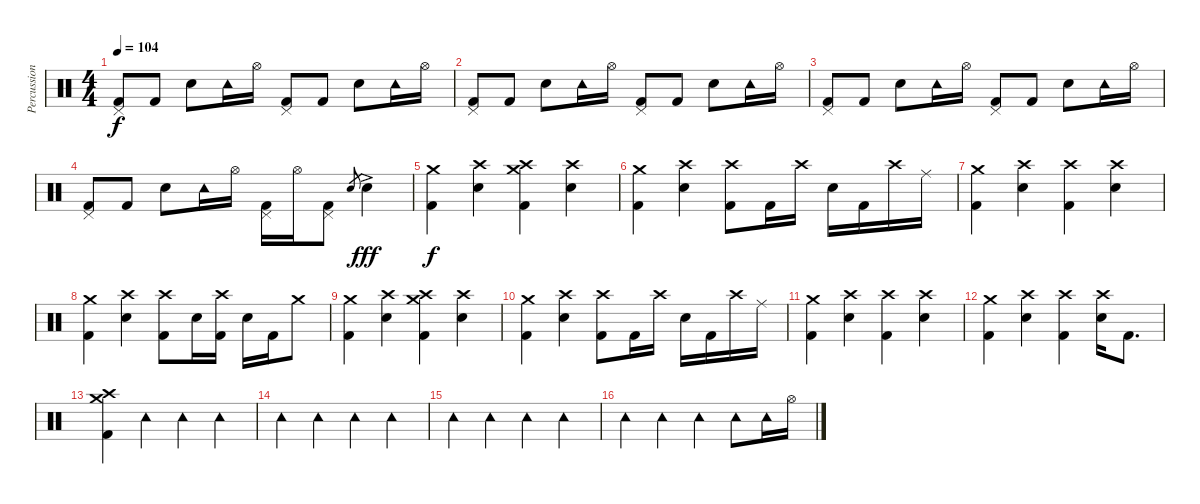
\track ("Percussions" "Percussion") {instrument percussion}
\staff {score}
\articulation defaults
\ts (4 4)
\tempo 104
\clef neutral
\ks c
("Pedal Hi-Hat (hit)" "Kick (hit) 2").8{dy f} "Kick (hit) 2".8 "Snare (hit) 2".8 "Tambourine (hit)".16 "Hi-Hat (open)".16 ("Pedal Hi-Hat (hit)" "Kick (hit) 2").8 "Kick (hit) 2".8 "Snare (hit) 2".8 "Tambourine (hit)".16 "Hi-Hat (open)".16 |
("Pedal Hi-Hat (hit)" "Kick (hit) 2").8 "Kick (hit) 2".8 "Snare (hit) 2".8 "Tambourine (hit)".16 "Hi-Hat (open)".16 ("Pedal Hi-Hat (hit)" "Kick (hit) 2").8 "Kick (hit) 2".8 "Snare (hit) 2".8 "Tambourine (hit)".16 "Hi-Hat (open)".16 |
("Pedal Hi-Hat (hit)" "Kick (hit) 2").8 "Kick (hit) 2".8 "Snare (hit) 2".8 "Tambourine (hit)".16 "Hi-Hat (open)".16 ("Pedal Hi-Hat (hit)" "Kick (hit) 2").8 "Kick (hit) 2".8 "Snare (hit) 2".8 "Tambourine (hit)".16 "Hi-Hat (open)".16 |
("Pedal Hi-Hat (hit)" "Kick (hit) 2").8 "Kick (hit) 2".8 "Snare (hit) 2".8 "Tambourine (hit)".16 "Hi-Hat (open)".16 ("Pedal Hi-Hat (hit)" "Kick (hit) 2").16 "Hi-Hat (open)".16 ("Pedal Hi-Hat (hit)" "Kick (hit) 2").8 "Snare (hit) 2".8{gr} "Snare (hit) 2"{ac}.4{dy fff} |
("Crash medium (hit)" "Kick (hit) 2").4{dy f} ("Crash high (hit)" "Snare (hit) 2").4 ("Crash medium (hit)" "Crash high (hit)" "Kick (hit) 2").4 ("Crash high (hit)" "Snare (hit) 2").4 |
("Crash medium (hit)" "Kick (hit) 2").4 ("Crash high (hit)" "Snare (hit) 2").4 ("Crash high (hit)" "Kick (hit) 2").8 "Kick (hit) 2".16 "Crash high (hit)".16 "Snare (hit) 2".16 "Kick (hit) 2".16 "Crash high (hit)".16 "Ride (middle)".16 |
("Crash medium (hit)" "Kick (hit) 2").4 ("Crash high (hit)" "Snare (hit) 2").4 ("Crash high (hit)" "Kick (hit) 2").4 ("Crash high (hit)" "Snare (hit) 2").4 |
("Crash medium (hit)" "Kick (hit) 2").4 ("Crash high (hit)" "Snare (hit) 2").4 ("Crash high (hit)" "Kick (hit) 2").8 "Snare (hit) 2".16 ("Crash high (hit)" "Kick (hit) 2").16 "Snare (hit) 2".16 "Kick (hit) 2".16 "Crash medium (hit)".8 |
("Crash medium (hit)" "Kick (hit) 2").4 ("Crash high (hit)" "Snare (hit) 2").4 ("Crash medium (hit)" "Crash high (hit)" "Kick (hit) 2").4 ("Crash high (hit)" "Snare (hit) 2").4 |
("Crash medium (hit)" "Kick (hit) 2").4 ("Crash high (hit)" "Snare (hit) 2").4 ("Crash high (hit)" "Kick (hit) 2").8 "Kick (hit) 2".16 "Crash high (hit)".16 "Snare (hit) 2".16 "Kick (hit) 2".16 "Crash high (hit)".16 "Ride (middle)".16 |
("Crash medium (hit)" "Kick (hit) 2").4 ("Crash high (hit)" "Snare (hit) 2").4 ("Crash high (hit)" "Kick (hit) 2").4 ("Crash high (hit)" "Snare (hit) 2").4 |
("Crash medium (hit)" "Kick (hit) 2").4 ("Crash high (hit)" "Snare (hit) 2").4 ("Crash high (hit)" "Kick (hit) 2").4 ("Crash high (hit)" "Snare (hit) 2").16 "Kick (hit) 2".8{d} |
("Crash medium (hit)" "Crash high (hit)" "Kick (hit) 2").4 "Tambourine (hit)".4 "Tambourine (hit)".4 "Tambourine (hit)".4 |
"Tambourine (hit)".4 "Tambourine (hit)".4 "Tambourine (hit)".4 "Tambourine (hit)".4 |
"Tambourine (hit)".4 "Tambourine (hit)".4 "Tambourine (hit)".4 "Tambourine (hit)".4 |
"Tambourine (hit)".4 "Tambourine (hit)".4 "Tambourine (hit)".4 "Tambourine (hit)".8 "Tambourine (hit)".16 "Hi-Hat (open)".16
